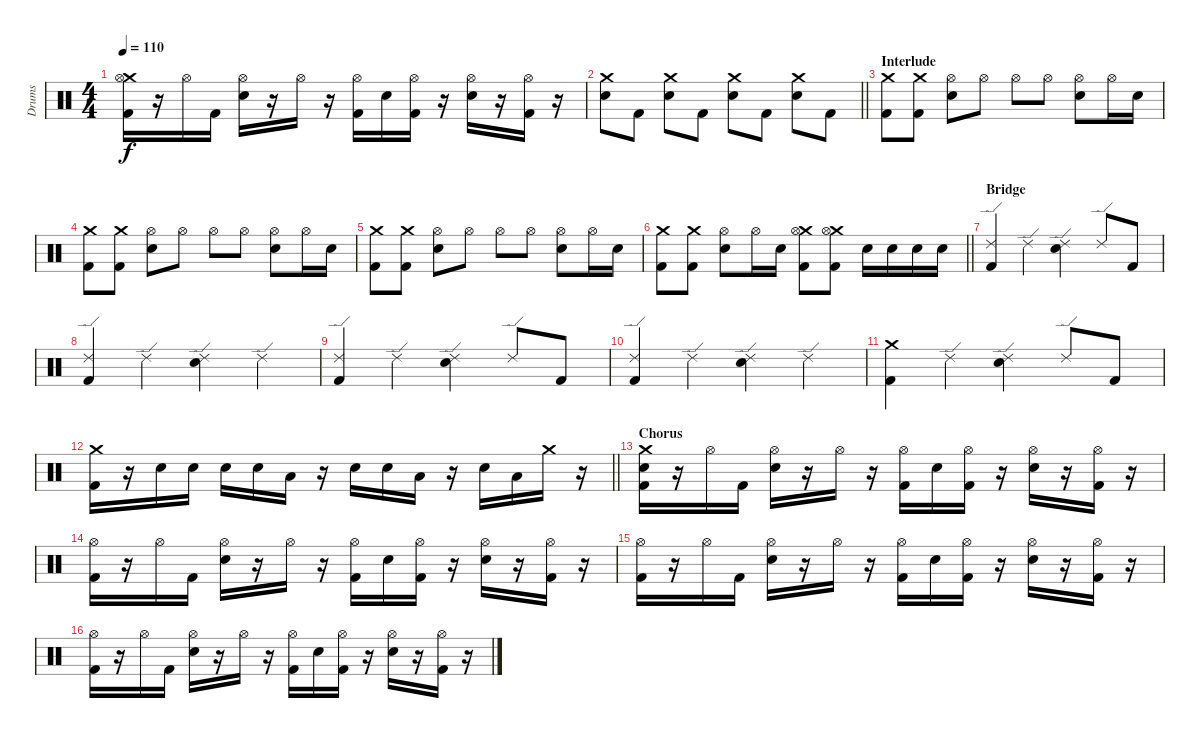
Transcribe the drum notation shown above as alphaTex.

\track ("Drums" "Drums") {instrument percussion}
\staff {score}
\articulation defaults
\ts (4 4)
\tempo 110
\clef neutral
\ks c
("Crash medium (hit)" "Hi-Hat (open)" "Kick (hit) 2").16{dy f} r.16 "Hi-Hat (open)".16 "Kick (hit) 2".16 ("Hi-Hat (open)" "Electric Snare (hit)").16 r.16 "Hi-Hat (open)".16 r.16 ("Hi-Hat (open)" "Kick (hit) 2").16 "Electric Snare (hit)".16 ("Hi-Hat (open)" "Kick (hit) 2").16 r.16 ("Hi-Hat (open)" "Electric Snare (hit)").16 r.16 ("Hi-Hat (open)" "Kick (hit) 2").16 r.16 |
\barLineRight lightlight
("Crash medium (hit)" "Electric Snare (hit)").8 "Kick (hit) 2".8 ("Crash medium (hit)" "Electric Snare (hit)").8 "Kick (hit) 2".8 ("Crash medium (hit)" "Electric Snare (hit)").8 "Kick (hit) 2".8 ("Crash medium (hit)" "Electric Snare (hit)").8 "Kick (hit) 2".8 |
\section ("" "Interlude")
("Crash medium (hit)" "Kick (hit) 2").8 ("Crash medium (hit)" "Kick (hit) 2").8 ("Hi-Hat (open)" "Electric Snare (hit)").8 "Hi-Hat (open)".8 "Hi-Hat (open)".8 "Hi-Hat (open)".8 ("Hi-Hat (open)" "Electric Snare (hit)").8 "Hi-Hat (open)".16 "Electric Snare (hit)".16 |
("Crash medium (hit)" "Kick (hit) 2").8 ("Crash medium (hit)" "Kick (hit) 2").8 ("Hi-Hat (open)" "Electric Snare (hit)").8 "Hi-Hat (open)".8 "Hi-Hat (open)".8 "Hi-Hat (open)".8 ("Hi-Hat (open)" "Electric Snare (hit)").8 "Hi-Hat (open)".16 "Electric Snare (hit)".16 |
("Crash medium (hit)" "Kick (hit) 2").8 ("Crash medium (hit)" "Kick (hit) 2").8 ("Hi-Hat (open)" "Electric Snare (hit)").8 "Hi-Hat (open)".8 "Hi-Hat (open)".8 "Hi-Hat (open)".8 ("Hi-Hat (open)" "Electric Snare (hit)").8 "Hi-Hat (open)".16 "Electric Snare (hit)".16 |
\barLineRight lightlight
("Crash medium (hit)" "Kick (hit) 2").8 ("Crash medium (hit)" "Kick (hit) 2").8 ("Hi-Hat (open)" "Electric Snare (hit)").8 "Hi-Hat (open)".16 "Electric Snare (hit)".16 ("Crash medium (hit)" "Hi-Hat (open)" "Kick (hit) 2").8 ("Crash medium (hit)" "Hi-Hat (open)" "Kick (hit) 2").8 "Electric Snare (hit)".16 "Electric Snare (hit)".16 "Electric Snare (hit)".16 "Electric Snare (hit)".16 |
\section ("" "Bridge")
("Ride (edge) 2" "Kick (hit) 2").4 "Ride (edge) 2".4 ("Ride (edge) 2" "Electric Snare (hit)").4 "Ride (edge) 2".8 "Kick (hit) 2".8 |
("Ride (edge) 2" "Kick (hit) 2").4 "Ride (edge) 2".4 ("Ride (edge) 2" "Electric Snare (hit)").4 "Ride (edge) 2".4 |
("Ride (edge) 2" "Kick (hit) 2").4 "Ride (edge) 2".4 ("Ride (edge) 2" "Electric Snare (hit)").4 "Ride (edge) 2".8 "Kick (hit) 2".8 |
("Ride (edge) 2" "Kick (hit) 2").4 "Ride (edge) 2".4 ("Ride (edge) 2" "Electric Snare (hit)").4 "Ride (edge) 2".4 |
("Crash medium (hit)" "Kick (hit) 2").4 "Ride (edge) 2".4 ("Ride (edge) 2" "Electric Snare (hit)").4 "Ride (edge) 2".8 "Kick (hit) 2".8 |
\barLineRight lightlight
("Crash medium (hit)" "Kick (hit) 2").16 r.16 "Electric Snare (hit)".16 "Electric Snare (hit)".16 "Electric Snare (hit)".16 "Electric Snare (hit)".16 "Low Tom (hit)".16 r.16 "Electric Snare (hit)".16 "Electric Snare (hit)".16 "Low Tom (hit)".16 r.16 "Electric Snare (hit)".16 "Low Tom (hit)".16 "Crash medium (hit)".16 r.16 |
\section ("" "Chorus")
("Crash medium (hit)" "Electric Snare (hit)" "Kick (hit) 2").16 r.16 "Hi-Hat (open)".16 "Kick (hit) 2".16 ("Hi-Hat (open)" "Electric Snare (hit)").16 r.16 "Hi-Hat (open)".16 r.16 ("Hi-Hat (open)" "Kick (hit) 2").16 "Electric Snare (hit)".16 ("Hi-Hat (open)" "Kick (hit) 2").16 r.16 ("Hi-Hat (open)" "Electric Snare (hit)").16 r.16 ("Hi-Hat (open)" "Kick (hit) 2").16 r.16 |
("Hi-Hat (open)" "Kick (hit) 2").16 r.16 "Hi-Hat (open)".16 "Kick (hit) 2".16 ("Hi-Hat (open)" "Electric Snare (hit)").16 r.16 "Hi-Hat (open)".16 r.16 ("Hi-Hat (open)" "Kick (hit) 2").16 "Electric Snare (hit)".16 ("Hi-Hat (open)" "Kick (hit) 2").16 r.16 ("Hi-Hat (open)" "Electric Snare (hit)").16 r.16 ("Hi-Hat (open)" "Kick (hit) 2").16 r.16 |
("Hi-Hat (open)" "Kick (hit) 2").16 r.16 "Hi-Hat (open)".16 "Kick (hit) 2".16 ("Hi-Hat (open)" "Electric Snare (hit)").16 r.16 "Hi-Hat (open)".16 r.16 ("Hi-Hat (open)" "Kick (hit) 2").16 "Electric Snare (hit)".16 ("Hi-Hat (open)" "Kick (hit) 2").16 r.16 ("Hi-Hat (open)" "Electric Snare (hit)").16 r.16 ("Hi-Hat (open)" "Kick (hit) 2").16 r.16 |
("Hi-Hat (open)" "Kick (hit) 2").16 r.16 "Hi-Hat (open)".16 "Kick (hit) 2".16 ("Hi-Hat (open)" "Electric Snare (hit)").16 r.16 "Hi-Hat (open)".16 r.16 ("Hi-Hat (open)" "Kick (hit) 2").16 "Electric Snare (hit)".16 ("Hi-Hat (open)" "Kick (hit) 2").16 r.16 ("Hi-Hat (open)" "Electric Snare (hit)").16 r.16 ("Hi-Hat (open)" "Kick (hit) 2").16 r.16
